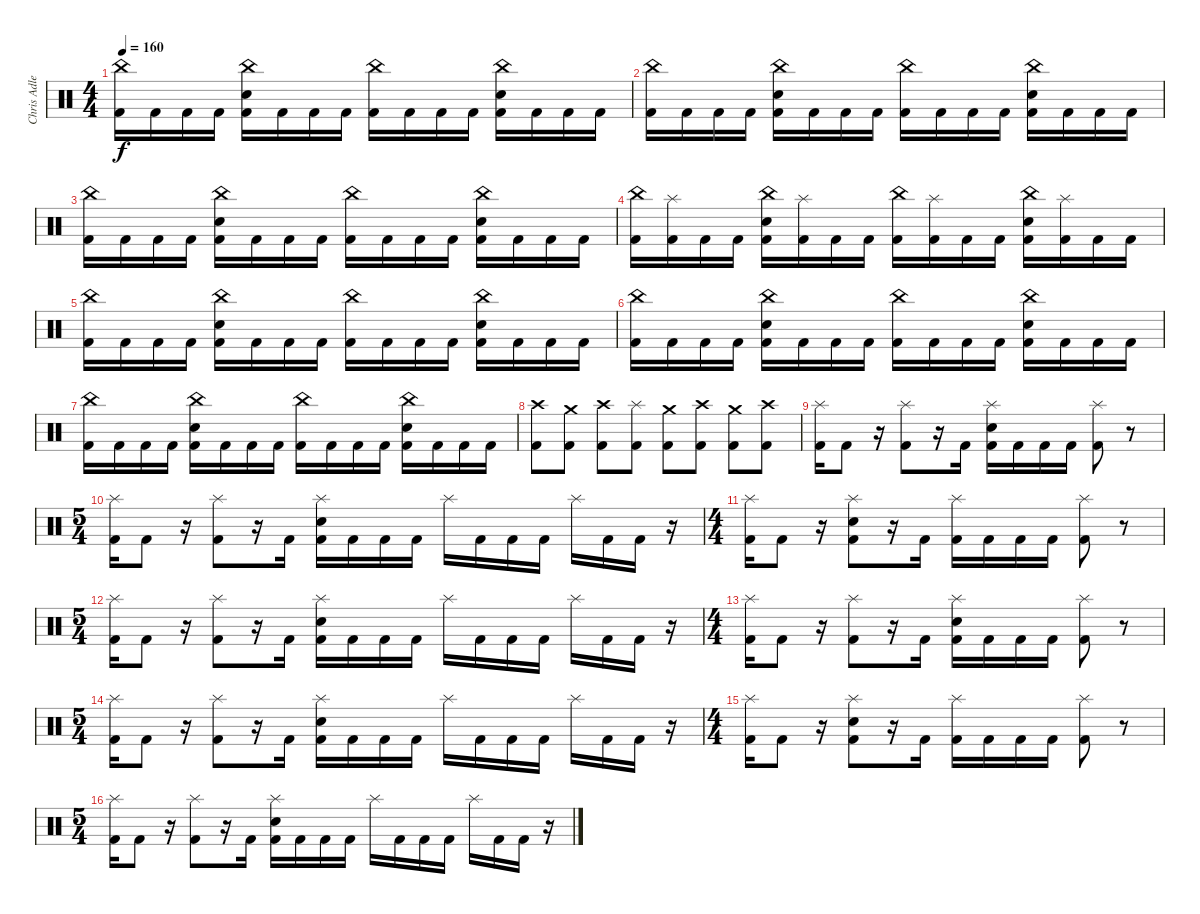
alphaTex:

\track ("Chris Adler" "Chris Adle") {instrument percussion}
\staff {score}
\articulation defaults
\ts (4 4)
\tempo 160
\clef neutral
\ks c
("China (hit)" "Kick (hit) 2").16{dy f} "Kick (hit) 2".16 "Kick (hit) 2".16 "Kick (hit) 2".16 ("China (hit)" "Electric Snare (hit)" "Kick (hit) 2").16 "Kick (hit) 2".16 "Kick (hit) 2".16 "Kick (hit) 2".16 ("China (hit)" "Kick (hit) 2").16 "Kick (hit) 2".16 "Kick (hit) 2".16 "Kick (hit) 2".16 ("China (hit)" "Electric Snare (hit)" "Kick (hit) 2").16 "Kick (hit) 2".16 "Kick (hit) 2".16 "Kick (hit) 2".16 |
("China (hit)" "Kick (hit) 2").16 "Kick (hit) 2".16 "Kick (hit) 2".16 "Kick (hit) 2".16 ("China (hit)" "Electric Snare (hit)" "Kick (hit) 2").16 "Kick (hit) 2".16 "Kick (hit) 2".16 "Kick (hit) 2".16 ("China (hit)" "Kick (hit) 2").16 "Kick (hit) 2".16 "Kick (hit) 2".16 "Kick (hit) 2".16 ("China (hit)" "Electric Snare (hit)" "Kick (hit) 2").16 "Kick (hit) 2".16 "Kick (hit) 2".16 "Kick (hit) 2".16 |
("China (hit)" "Kick (hit) 2").16 "Kick (hit) 2".16 "Kick (hit) 2".16 "Kick (hit) 2".16 ("China (hit)" "Electric Snare (hit)" "Kick (hit) 2").16 "Kick (hit) 2".16 "Kick (hit) 2".16 "Kick (hit) 2".16 ("China (hit)" "Kick (hit) 2").16 "Kick (hit) 2".16 "Kick (hit) 2".16 "Kick (hit) 2".16 ("China (hit)" "Electric Snare (hit)" "Kick (hit) 2").16 "Kick (hit) 2".16 "Kick (hit) 2".16 "Kick (hit) 2".16 |
("China (hit)" "Kick (hit) 2").16 ("Splash (hit)" "Kick (hit) 2").16 "Kick (hit) 2".16 "Kick (hit) 2".16 ("China (hit)" "Electric Snare (hit)" "Kick (hit) 2").16 ("Splash (hit)" "Kick (hit) 2").16 "Kick (hit) 2".16 "Kick (hit) 2".16 ("China (hit)" "Kick (hit) 2").16 ("Splash (hit)" "Kick (hit) 2").16 "Kick (hit) 2".16 "Kick (hit) 2".16 ("China (hit)" "Electric Snare (hit)" "Kick (hit) 2").16 ("Splash (hit)" "Kick (hit) 2").16 "Kick (hit) 2".16 "Kick (hit) 2".16 |
("China (hit)" "Kick (hit) 2").16 "Kick (hit) 2".16 "Kick (hit) 2".16 "Kick (hit) 2".16 ("China (hit)" "Electric Snare (hit)" "Kick (hit) 2").16 "Kick (hit) 2".16 "Kick (hit) 2".16 "Kick (hit) 2".16 ("China (hit)" "Kick (hit) 2").16 "Kick (hit) 2".16 "Kick (hit) 2".16 "Kick (hit) 2".16 ("China (hit)" "Electric Snare (hit)" "Kick (hit) 2").16 "Kick (hit) 2".16 "Kick (hit) 2".16 "Kick (hit) 2".16 |
("China (hit)" "Kick (hit) 2").16 "Kick (hit) 2".16 "Kick (hit) 2".16 "Kick (hit) 2".16 ("China (hit)" "Electric Snare (hit)" "Kick (hit) 2").16 "Kick (hit) 2".16 "Kick (hit) 2".16 "Kick (hit) 2".16 ("China (hit)" "Kick (hit) 2").16 "Kick (hit) 2".16 "Kick (hit) 2".16 "Kick (hit) 2".16 ("China (hit)" "Electric Snare (hit)" "Kick (hit) 2").16 "Kick (hit) 2".16 "Kick (hit) 2".16 "Kick (hit) 2".16 |
("China (hit)" "Kick (hit) 2").16 "Kick (hit) 2".16 "Kick (hit) 2".16 "Kick (hit) 2".16 ("China (hit)" "Electric Snare (hit)" "Kick (hit) 2").16 "Kick (hit) 2".16 "Kick (hit) 2".16 "Kick (hit) 2".16 ("China (hit)" "Kick (hit) 2").16 "Kick (hit) 2".16 "Kick (hit) 2".16 "Kick (hit) 2".16 ("China (hit)" "Electric Snare (hit)" "Kick (hit) 2").16 "Kick (hit) 2".16 "Kick (hit) 2".16 "Kick (hit) 2".16 |
("Crash high (hit)" "Kick (hit) 2").8 ("Crash medium (hit)" "Kick (hit) 2").8 ("Crash high (hit)" "Kick (hit) 2").8 ("Splash (hit)" "Kick (hit) 2").8 ("Crash medium (hit)" "Kick (hit) 2").8 ("Crash high (hit)" "Kick (hit) 2").8 ("Crash medium (hit)" "Kick (hit) 2").8 ("Crash high (hit)" "Kick (hit) 2").8 |
("Splash (hit)" "Kick (hit) 2").16 "Kick (hit) 2".8 r.16 ("Splash (hit)" "Kick (hit) 2").8 r.16 "Kick (hit) 2".16 ("Splash (hit)" "Electric Snare (hit)" "Kick (hit) 2").16 "Kick (hit) 2".16 "Kick (hit) 2".16 "Kick (hit) 2".16 ("Splash (hit)" "Kick (hit) 2").8 r.8 |
\ts (5 4)
("Splash (hit)" "Kick (hit) 2").16 "Kick (hit) 2".8 r.16 ("Splash (hit)" "Kick (hit) 2").8 r.16 "Kick (hit) 2".16 ("Splash (hit)" "Electric Snare (hit)" "Kick (hit) 2").16 "Kick (hit) 2".16 "Kick (hit) 2".16 "Kick (hit) 2".16 "Splash (hit)".16 "Kick (hit) 2".16 "Kick (hit) 2".16 "Kick (hit) 2".16 "Splash (hit)".16 "Kick (hit) 2".16 "Kick (hit) 2".16 r.16 |
\ts (4 4)
("Splash (hit)" "Kick (hit) 2").16 "Kick (hit) 2".8 r.16 ("Splash (hit)" "Electric Snare (hit)" "Kick (hit) 2").8 r.16 "Kick (hit) 2".16 ("Splash (hit)" "Kick (hit) 2").16 "Kick (hit) 2".16 "Kick (hit) 2".16 "Kick (hit) 2".16 ("Splash (hit)" "Kick (hit) 2").8 r.8 |
\ts (5 4)
("Splash (hit)" "Kick (hit) 2").16 "Kick (hit) 2".8 r.16 ("Splash (hit)" "Kick (hit) 2").8 r.16 "Kick (hit) 2".16 ("Splash (hit)" "Electric Snare (hit)" "Kick (hit) 2").16 "Kick (hit) 2".16 "Kick (hit) 2".16 "Kick (hit) 2".16 "Splash (hit)".16 "Kick (hit) 2".16 "Kick (hit) 2".16 "Kick (hit) 2".16 "Splash (hit)".16 "Kick (hit) 2".16 "Kick (hit) 2".16 r.16 |
\ts (4 4)
("Splash (hit)" "Kick (hit) 2").16 "Kick (hit) 2".8 r.16 ("Splash (hit)" "Kick (hit) 2").8 r.16 "Kick (hit) 2".16 ("Splash (hit)" "Electric Snare (hit)" "Kick (hit) 2").16 "Kick (hit) 2".16 "Kick (hit) 2".16 "Kick (hit) 2".16 ("Splash (hit)" "Kick (hit) 2").8 r.8 |
\ts (5 4)
("Splash (hit)" "Kick (hit) 2").16 "Kick (hit) 2".8 r.16 ("Splash (hit)" "Kick (hit) 2").8 r.16 "Kick (hit) 2".16 ("Splash (hit)" "Electric Snare (hit)" "Kick (hit) 2").16 "Kick (hit) 2".16 "Kick (hit) 2".16 "Kick (hit) 2".16 "Splash (hit)".16 "Kick (hit) 2".16 "Kick (hit) 2".16 "Kick (hit) 2".16 "Splash (hit)".16 "Kick (hit) 2".16 "Kick (hit) 2".16 r.16 |
\ts (4 4)
("Splash (hit)" "Kick (hit) 2").16 "Kick (hit) 2".8 r.16 ("Splash (hit)" "Electric Snare (hit)" "Kick (hit) 2").8 r.16 "Kick (hit) 2".16 ("Splash (hit)" "Kick (hit) 2").16 "Kick (hit) 2".16 "Kick (hit) 2".16 "Kick (hit) 2".16 ("Splash (hit)" "Kick (hit) 2").8 r.8 |
\ts (5 4)
("Splash (hit)" "Kick (hit) 2").16 "Kick (hit) 2".8 r.16 ("Splash (hit)" "Kick (hit) 2").8 r.16 "Kick (hit) 2".16 ("Splash (hit)" "Electric Snare (hit)" "Kick (hit) 2").16 "Kick (hit) 2".16 "Kick (hit) 2".16 "Kick (hit) 2".16 "Splash (hit)".16 "Kick (hit) 2".16 "Kick (hit) 2".16 "Kick (hit) 2".16 "Splash (hit)".16 "Kick (hit) 2".16 "Kick (hit) 2".16 r.16
